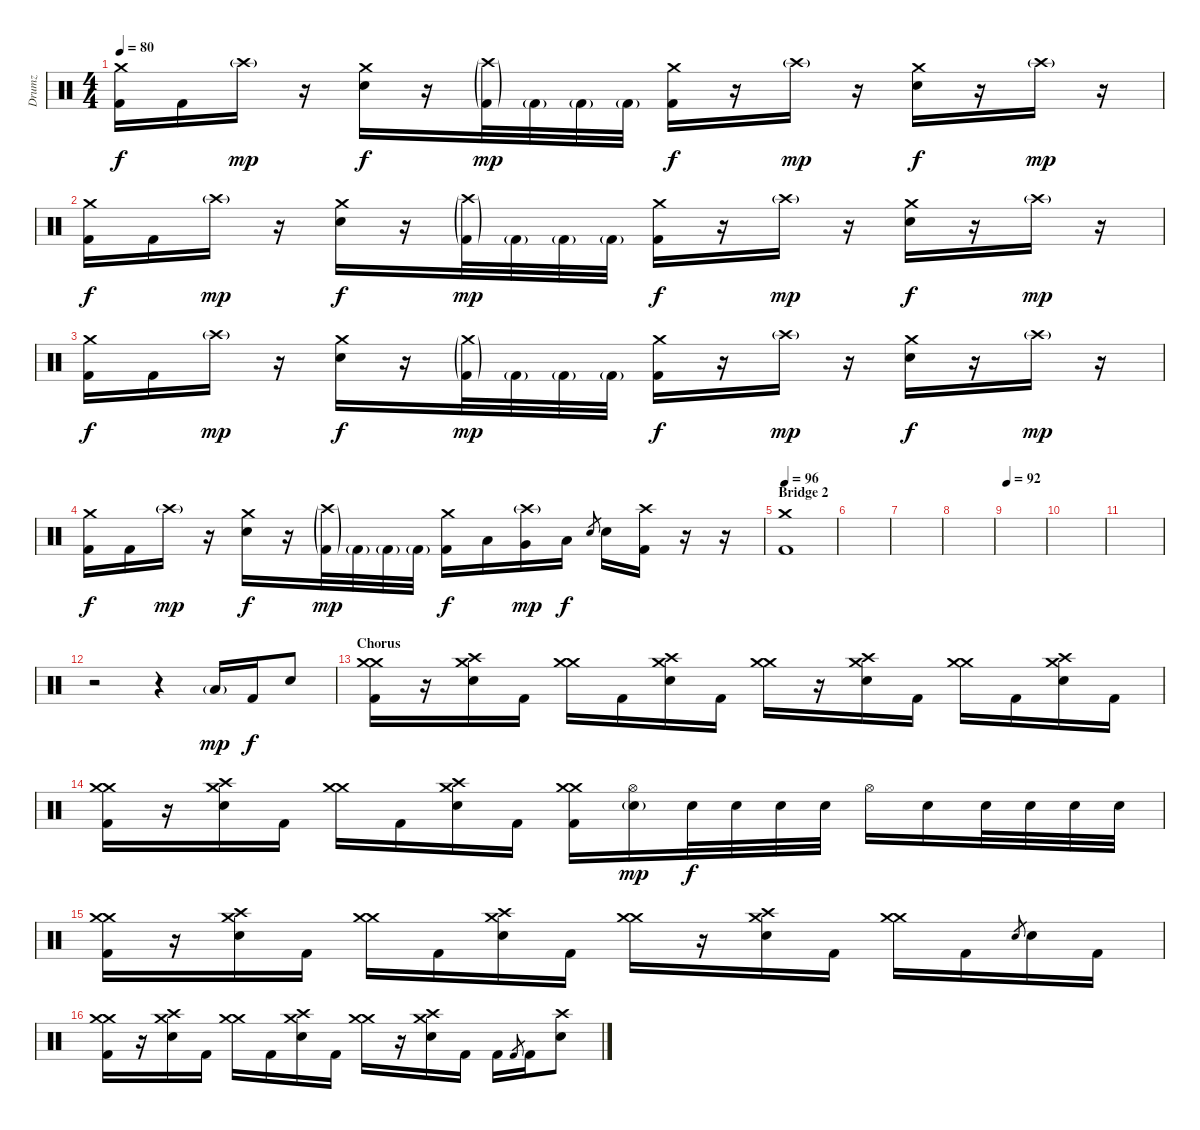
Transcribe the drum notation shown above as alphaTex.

\track ("Drumz" "Drumz") {instrument percussion}
\staff {score}
\articulation defaults
\ts (4 4)
\tempo 80
\clef neutral
\ks c
("Crash medium (hit)" "Kick (hit) 2").16{dy f} "Kick (hit) 2".16 "Crash high (hit)"{g}.16{dy mp} r.16 ("Crash medium (hit)" "Electric Snare (hit)").16{dy f} r.16 ("Crash high (hit)"{g} "Kick (hit) 2"{g}).32{dy mp} "Kick (hit) 2"{g}.32 "Kick (hit) 2"{g}.32 "Kick (hit) 2"{g}.32 ("Crash medium (hit)" "Kick (hit) 2").16{dy f} r.16 "Crash high (hit)"{g}.16{dy mp} r.16 ("Crash medium (hit)" "Electric Snare (hit)").16{dy f} r.16 "Crash high (hit)"{g}.16{dy mp} r.16 |
("Crash medium (hit)" "Kick (hit) 2").16{dy f} "Kick (hit) 2".16 "Crash high (hit)"{g}.16{dy mp} r.16 ("Crash medium (hit)" "Electric Snare (hit)").16{dy f} r.16 ("Crash high (hit)"{g} "Kick (hit) 2"{g}).32{dy mp} "Kick (hit) 2"{g}.32 "Kick (hit) 2"{g}.32 "Kick (hit) 2"{g}.32 ("Crash medium (hit)" "Kick (hit) 2").16{dy f} r.16 "Crash high (hit)"{g}.16{dy mp} r.16 ("Crash medium (hit)" "Electric Snare (hit)").16{dy f} r.16 "Crash high (hit)"{g}.16{dy mp} r.16 |
("Crash medium (hit)" "Kick (hit) 2").16{dy f} "Kick (hit) 2".16 "Crash high (hit)"{g}.16{dy mp} r.16 ("Crash medium (hit)" "Electric Snare (hit)").16{dy f} r.16 ("Crash medium (hit)"{g} "Kick (hit) 2"{g}).32{dy mp} "Kick (hit) 2"{g}.32 "Kick (hit) 2"{g}.32 "Kick (hit) 2"{g}.32 ("Crash medium (hit)" "Kick (hit) 2").16{dy f} r.16 "Crash high (hit)"{g}.16{dy mp} r.16 ("Crash medium (hit)" "Electric Snare (hit)").16{dy f} r.16 "Crash high (hit)"{g}.16{dy mp} r.16 |
("Crash medium (hit)" "Kick (hit) 2").16{dy f} "Kick (hit) 2".16 "Crash high (hit)"{g}.16{dy mp} r.16 ("Crash medium (hit)" "Electric Snare (hit)").16{dy f} r.16 ("Crash high (hit)"{g} "Kick (hit) 2"{g}).32{dy mp} "Kick (hit) 2"{g}.32 "Kick (hit) 2"{g}.32 "Kick (hit) 2"{g}.32 ("Crash medium (hit)" "Kick (hit) 2").16{dy f} "Low Floor Tom (hit)".16 ("Crash high (hit)"{g} "Very Low Tom (hit)").16{dy mp} "Low Floor Tom (hit)".16{dy f} "Electric Snare (hit)".8{gr} "Electric Snare (hit)".16 ("Crash high (hit)" "Kick (hit) 2").16 r.16 r.16 |
\section ("" "Bridge 2")
\tempo 96
("Crash medium (hit)" "Kick (hit) 2").1 |
|
|
|
\tempo 92
|
|
|
r.2 r.4 "Low Floor Tom (hit)"{g}.16{dy mp} "Kick (hit) 2".16{dy f} "Electric Snare (hit)".8 |
\section ("" "Chorus")
("Crash medium (hit)" "Crash medium (hit)" "Kick (hit) 2").16 r.16 ("Crash high (hit)" "Crash medium (hit)" "Electric Snare (hit)").16 "Kick (hit) 2".16 ("Crash medium (hit)" "Crash medium (hit)").16 "Kick (hit) 2".16 ("Crash high (hit)" "Crash medium (hit)" "Electric Snare (hit)").16 "Kick (hit) 2".16 ("Crash medium (hit)" "Crash medium (hit)").16 r.16 ("Crash high (hit)" "Crash medium (hit)" "Electric Snare (hit)").16 "Kick (hit) 2".16 ("Crash medium (hit)" "Crash medium (hit)").16 "Kick (hit) 2".16 ("Crash high (hit)" "Crash medium (hit)" "Electric Snare (hit)").16 "Kick (hit) 2".16 |
("Crash medium (hit)" "Crash medium (hit)" "Kick (hit) 2").16 r.16 ("Crash high (hit)" "Crash medium (hit)" "Electric Snare (hit)").16 "Kick (hit) 2".16 ("Crash medium (hit)" "Crash medium (hit)").16 "Kick (hit) 2".16 ("Crash high (hit)" "Crash medium (hit)" "Electric Snare (hit)").16 "Kick (hit) 2".16 ("Crash medium (hit)" "Crash medium (hit)" "Kick (hit) 2").16 ("Hi-Hat (open)" "Electric Snare (hit)"{g}).16{dy mp} "Electric Snare (hit)".32{dy f} "Electric Snare (hit)".32 "Electric Snare (hit)".32 "Electric Snare (hit)".32 "Hi-Hat (open)".16 "Electric Snare (hit)".16 "Electric Snare (hit)".32 "Electric Snare (hit)".32 "Electric Snare (hit)".32 "Electric Snare (hit)".32 |
("Crash medium (hit)" "Crash medium (hit)" "Kick (hit) 2").16 r.16 ("Crash high (hit)" "Crash medium (hit)" "Electric Snare (hit)").16 "Kick (hit) 2".16 ("Crash medium (hit)" "Crash medium (hit)").16 "Kick (hit) 2".16 ("Crash high (hit)" "Crash medium (hit)" "Electric Snare (hit)").16 "Kick (hit) 2".16 ("Crash medium (hit)" "Crash medium (hit)").16 r.16 ("Crash high (hit)" "Crash medium (hit)" "Electric Snare (hit)").16 "Kick (hit) 2".16 ("Crash medium (hit)" "Crash medium (hit)").16 "Kick (hit) 2".16 "Electric Snare (hit)".8{gr} "Electric Snare (hit)".16 "Kick (hit) 2".16 |
("Crash medium (hit)" "Crash medium (hit)" "Kick (hit) 2").16 r.16 ("Crash high (hit)" "Crash medium (hit)" "Electric Snare (hit)").16 "Kick (hit) 2".16 ("Crash medium (hit)" "Crash medium (hit)").16 "Kick (hit) 2".16 ("Crash high (hit)" "Crash medium (hit)" "Electric Snare (hit)").16 "Kick (hit) 2".16 ("Crash medium (hit)" "Crash medium (hit)").16 r.16 ("Crash high (hit)" "Crash medium (hit)" "Electric Snare (hit)").16 "Kick (hit) 2".16 "Kick (hit) 2".16 "Kick (hit) 2".8{gr} "Kick (hit) 2".16 ("Crash high (hit)" "Electric Snare (hit)").8
